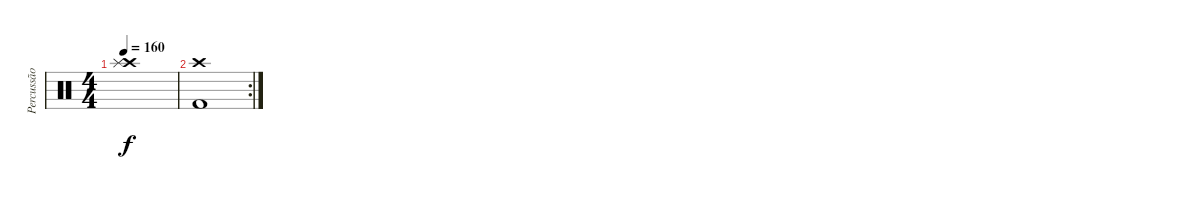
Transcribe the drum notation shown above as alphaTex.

\track ("Percussão" "Percussão") {instrument percussion}
\staff {score}
\articulation defaults
\ts (4 4)
\tempo 160
\clef neutral
\ks c
("Crash high (hit)" "Splash (hit)").1{dy f} |
\rc 2
("Crash high (hit)" "Kick (hit) 2").1
